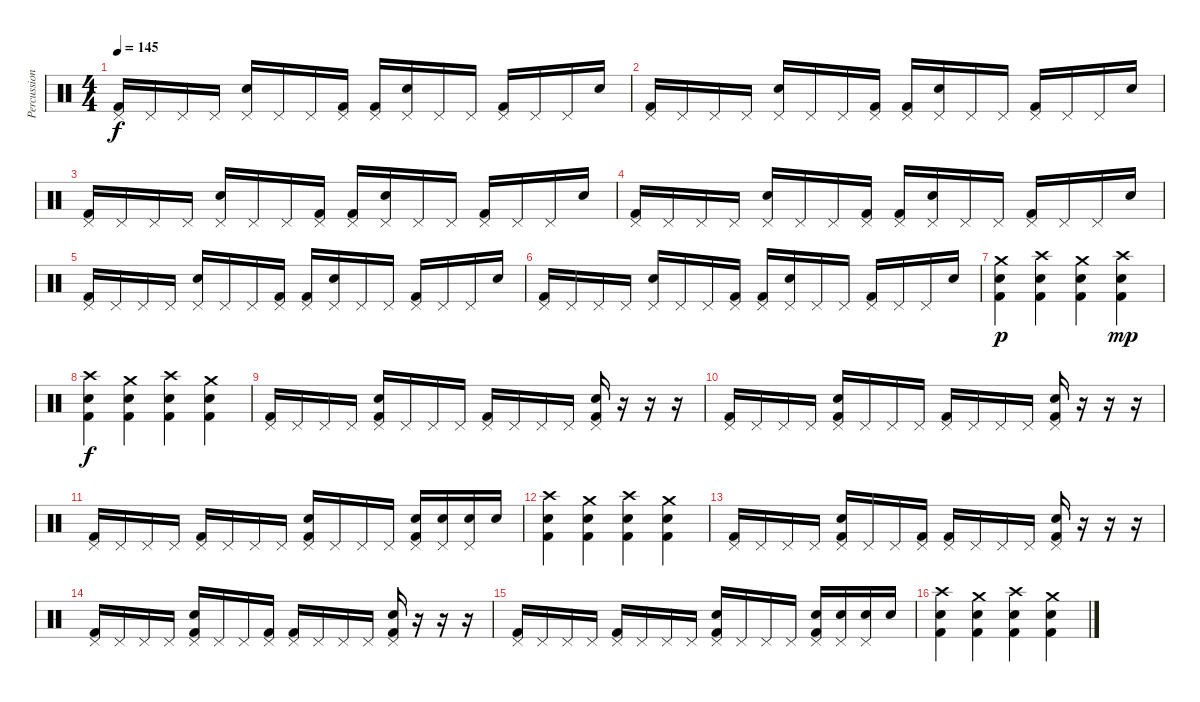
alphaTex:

\track ("Percussion" "Percussion") {instrument percussion}
\staff {score}
\articulation defaults
\ts (4 4)
\tempo 145
\clef neutral
\ks c
("Kick (hit) 2" "Pedal Hi-Hat (hit)").16{dy f} "Pedal Hi-Hat (hit)".16 "Pedal Hi-Hat (hit)".16 "Pedal Hi-Hat (hit)".16 ("Electric Snare (hit)" "Pedal Hi-Hat (hit)").16 "Pedal Hi-Hat (hit)".16 "Pedal Hi-Hat (hit)".16 ("Kick (hit) 2" "Pedal Hi-Hat (hit)").16 ("Kick (hit) 2" "Pedal Hi-Hat (hit)").16 ("Electric Snare (hit)" "Pedal Hi-Hat (hit)").16 "Pedal Hi-Hat (hit)".16 "Pedal Hi-Hat (hit)".16 ("Kick (hit) 2" "Pedal Hi-Hat (hit)").16 "Pedal Hi-Hat (hit)".16 "Pedal Hi-Hat (hit)".16 "Electric Snare (hit)".16 |
("Kick (hit) 2" "Pedal Hi-Hat (hit)").16 "Pedal Hi-Hat (hit)".16 "Pedal Hi-Hat (hit)".16 "Pedal Hi-Hat (hit)".16 ("Electric Snare (hit)" "Pedal Hi-Hat (hit)").16 "Pedal Hi-Hat (hit)".16 "Pedal Hi-Hat (hit)".16 ("Kick (hit) 2" "Pedal Hi-Hat (hit)").16 ("Kick (hit) 2" "Pedal Hi-Hat (hit)").16 ("Electric Snare (hit)" "Pedal Hi-Hat (hit)").16 "Pedal Hi-Hat (hit)".16 "Pedal Hi-Hat (hit)".16 ("Kick (hit) 2" "Pedal Hi-Hat (hit)").16 "Pedal Hi-Hat (hit)".16 "Pedal Hi-Hat (hit)".16 "Electric Snare (hit)".16 |
("Kick (hit) 2" "Pedal Hi-Hat (hit)").16 "Pedal Hi-Hat (hit)".16 "Pedal Hi-Hat (hit)".16 "Pedal Hi-Hat (hit)".16 ("Electric Snare (hit)" "Pedal Hi-Hat (hit)").16 "Pedal Hi-Hat (hit)".16 "Pedal Hi-Hat (hit)".16 ("Kick (hit) 2" "Pedal Hi-Hat (hit)").16 ("Kick (hit) 2" "Pedal Hi-Hat (hit)").16 ("Electric Snare (hit)" "Pedal Hi-Hat (hit)").16 "Pedal Hi-Hat (hit)".16 "Pedal Hi-Hat (hit)".16 ("Kick (hit) 2" "Pedal Hi-Hat (hit)").16 "Pedal Hi-Hat (hit)".16 "Pedal Hi-Hat (hit)".16 "Electric Snare (hit)".16 |
("Kick (hit) 2" "Pedal Hi-Hat (hit)").16 "Pedal Hi-Hat (hit)".16 "Pedal Hi-Hat (hit)".16 "Pedal Hi-Hat (hit)".16 ("Electric Snare (hit)" "Pedal Hi-Hat (hit)").16 "Pedal Hi-Hat (hit)".16 "Pedal Hi-Hat (hit)".16 ("Kick (hit) 2" "Pedal Hi-Hat (hit)").16 ("Kick (hit) 2" "Pedal Hi-Hat (hit)").16 ("Electric Snare (hit)" "Pedal Hi-Hat (hit)").16 "Pedal Hi-Hat (hit)".16 "Pedal Hi-Hat (hit)".16 ("Kick (hit) 2" "Pedal Hi-Hat (hit)").16 "Pedal Hi-Hat (hit)".16 "Pedal Hi-Hat (hit)".16 "Electric Snare (hit)".16 |
("Kick (hit) 2" "Pedal Hi-Hat (hit)").16 "Pedal Hi-Hat (hit)".16 "Pedal Hi-Hat (hit)".16 "Pedal Hi-Hat (hit)".16 ("Electric Snare (hit)" "Pedal Hi-Hat (hit)").16 "Pedal Hi-Hat (hit)".16 "Pedal Hi-Hat (hit)".16 ("Kick (hit) 2" "Pedal Hi-Hat (hit)").16 ("Kick (hit) 2" "Pedal Hi-Hat (hit)").16 ("Electric Snare (hit)" "Pedal Hi-Hat (hit)").16 "Pedal Hi-Hat (hit)".16 "Pedal Hi-Hat (hit)".16 ("Kick (hit) 2" "Pedal Hi-Hat (hit)").16 "Pedal Hi-Hat (hit)".16 "Pedal Hi-Hat (hit)".16 "Electric Snare (hit)".16 |
("Kick (hit) 2" "Pedal Hi-Hat (hit)").16 "Pedal Hi-Hat (hit)".16 "Pedal Hi-Hat (hit)".16 "Pedal Hi-Hat (hit)".16 ("Electric Snare (hit)" "Pedal Hi-Hat (hit)").16 "Pedal Hi-Hat (hit)".16 "Pedal Hi-Hat (hit)".16 ("Kick (hit) 2" "Pedal Hi-Hat (hit)").16 ("Kick (hit) 2" "Pedal Hi-Hat (hit)").16 ("Electric Snare (hit)" "Pedal Hi-Hat (hit)").16 "Pedal Hi-Hat (hit)".16 "Pedal Hi-Hat (hit)".16 ("Kick (hit) 2" "Pedal Hi-Hat (hit)").16 "Pedal Hi-Hat (hit)".16 "Pedal Hi-Hat (hit)".16 "Electric Snare (hit)".16 |
("Electric Snare (hit)" "Crash medium (hit)" "Kick (hit) 2").4{dy p} ("Electric Snare (hit)" "Crash high (hit)" "Kick (hit) 2").4 ("Electric Snare (hit)" "Crash medium (hit)" "Kick (hit) 2").4 ("Electric Snare (hit)" "Crash high (hit)" "Kick (hit) 2").4{dy mp} |
("Electric Snare (hit)" "Crash high (hit)" "Kick (hit) 2").4{dy f} ("Electric Snare (hit)" "Crash medium (hit)" "Kick (hit) 2").4 ("Electric Snare (hit)" "Crash high (hit)" "Kick (hit) 2").4 ("Electric Snare (hit)" "Crash medium (hit)" "Kick (hit) 2").4 |
("Kick (hit) 2" "Pedal Hi-Hat (hit)").16 "Pedal Hi-Hat (hit)".16 "Pedal Hi-Hat (hit)".16 "Pedal Hi-Hat (hit)".16 ("Electric Snare (hit)" "Kick (hit) 2" "Pedal Hi-Hat (hit)").16 "Pedal Hi-Hat (hit)".16 "Pedal Hi-Hat (hit)".16 "Pedal Hi-Hat (hit)".16 ("Kick (hit) 2" "Pedal Hi-Hat (hit)").16 "Pedal Hi-Hat (hit)".16 "Pedal Hi-Hat (hit)".16 "Pedal Hi-Hat (hit)".16 ("Electric Snare (hit)" "Kick (hit) 2" "Pedal Hi-Hat (hit)").16 r.16 r.16 r.16 |
("Kick (hit) 2" "Pedal Hi-Hat (hit)").16 "Pedal Hi-Hat (hit)".16 "Pedal Hi-Hat (hit)".16 "Pedal Hi-Hat (hit)".16 ("Electric Snare (hit)" "Kick (hit) 2" "Pedal Hi-Hat (hit)").16 "Pedal Hi-Hat (hit)".16 "Pedal Hi-Hat (hit)".16 "Pedal Hi-Hat (hit)".16 ("Kick (hit) 2" "Pedal Hi-Hat (hit)").16 "Pedal Hi-Hat (hit)".16 "Pedal Hi-Hat (hit)".16 "Pedal Hi-Hat (hit)".16 ("Electric Snare (hit)" "Kick (hit) 2" "Pedal Hi-Hat (hit)").16 r.16 r.16 r.16 |
("Kick (hit) 2" "Pedal Hi-Hat (hit)").16 "Pedal Hi-Hat (hit)".16 "Pedal Hi-Hat (hit)".16 "Pedal Hi-Hat (hit)".16 ("Kick (hit) 2" "Pedal Hi-Hat (hit)").16 "Pedal Hi-Hat (hit)".16 "Pedal Hi-Hat (hit)".16 "Pedal Hi-Hat (hit)".16 ("Electric Snare (hit)" "Kick (hit) 2" "Pedal Hi-Hat (hit)").16 "Pedal Hi-Hat (hit)".16 "Pedal Hi-Hat (hit)".16 "Pedal Hi-Hat (hit)".16 ("Electric Snare (hit)" "Kick (hit) 2" "Pedal Hi-Hat (hit)").16 ("Electric Snare (hit)" "Pedal Hi-Hat (hit)").16 ("Electric Snare (hit)" "Pedal Hi-Hat (hit)").16 "Electric Snare (hit)".16 |
("Electric Snare (hit)" "Crash high (hit)" "Kick (hit) 2").4 ("Electric Snare (hit)" "Crash medium (hit)" "Kick (hit) 2").4 ("Electric Snare (hit)" "Crash high (hit)" "Kick (hit) 2").4 ("Electric Snare (hit)" "Crash medium (hit)" "Kick (hit) 2").4 |
("Kick (hit) 2" "Pedal Hi-Hat (hit)").16 "Pedal Hi-Hat (hit)".16 "Pedal Hi-Hat (hit)".16 "Pedal Hi-Hat (hit)".16 ("Electric Snare (hit)" "Kick (hit) 2" "Pedal Hi-Hat (hit)").16 "Pedal Hi-Hat (hit)".16 "Pedal Hi-Hat (hit)".16 ("Kick (hit) 2" "Pedal Hi-Hat (hit)").16 ("Kick (hit) 2" "Pedal Hi-Hat (hit)").16 "Pedal Hi-Hat (hit)".16 "Pedal Hi-Hat (hit)".16 "Pedal Hi-Hat (hit)".16 ("Electric Snare (hit)" "Kick (hit) 2" "Pedal Hi-Hat (hit)").16 r.16 r.16 r.16 |
("Kick (hit) 2" "Pedal Hi-Hat (hit)").16 "Pedal Hi-Hat (hit)".16 "Pedal Hi-Hat (hit)".16 "Pedal Hi-Hat (hit)".16 ("Electric Snare (hit)" "Kick (hit) 2" "Pedal Hi-Hat (hit)").16 "Pedal Hi-Hat (hit)".16 "Pedal Hi-Hat (hit)".16 ("Kick (hit) 2" "Pedal Hi-Hat (hit)").16 ("Kick (hit) 2" "Pedal Hi-Hat (hit)").16 "Pedal Hi-Hat (hit)".16 "Pedal Hi-Hat (hit)".16 "Pedal Hi-Hat (hit)".16 ("Electric Snare (hit)" "Kick (hit) 2" "Pedal Hi-Hat (hit)").16 r.16 r.16 r.16 |
("Kick (hit) 2" "Pedal Hi-Hat (hit)").16 "Pedal Hi-Hat (hit)".16 "Pedal Hi-Hat (hit)".16 "Pedal Hi-Hat (hit)".16 ("Kick (hit) 2" "Pedal Hi-Hat (hit)").16 "Pedal Hi-Hat (hit)".16 "Pedal Hi-Hat (hit)".16 "Pedal Hi-Hat (hit)".16 ("Electric Snare (hit)" "Kick (hit) 2" "Pedal Hi-Hat (hit)").16 "Pedal Hi-Hat (hit)".16 "Pedal Hi-Hat (hit)".16 "Pedal Hi-Hat (hit)".16 ("Electric Snare (hit)" "Kick (hit) 2" "Pedal Hi-Hat (hit)").16 ("Electric Snare (hit)" "Pedal Hi-Hat (hit)").16 ("Electric Snare (hit)" "Pedal Hi-Hat (hit)").16 "Electric Snare (hit)".16 |
("Electric Snare (hit)" "Crash high (hit)" "Kick (hit) 2").4 ("Electric Snare (hit)" "Crash medium (hit)" "Kick (hit) 2").4 ("Electric Snare (hit)" "Crash high (hit)" "Kick (hit) 2").4 ("Electric Snare (hit)" "Crash medium (hit)" "Kick (hit) 2").4
